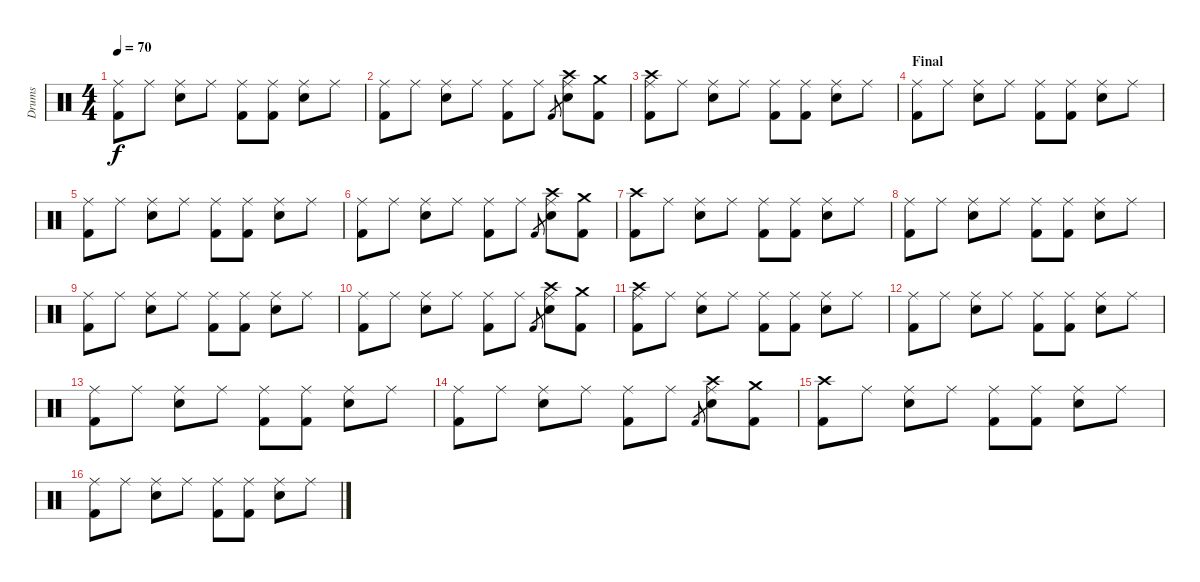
\track ("Drums" "Drums") {instrument percussion}
\staff {score}
\articulation defaults
\ts (4 4)
\tempo 70
\clef neutral
\ks c
("Ride (middle)" "Kick (hit) 2").8{dy f} "Ride (middle)".8 ("Ride (middle)" "Electric Snare (hit)").8 "Ride (middle)".8 ("Ride (middle)" "Kick (hit) 2").8 ("Ride (middle)" "Kick (hit) 2").8 ("Ride (middle)" "Electric Snare (hit)").8 "Ride (middle)".8 |
("Ride (middle)" "Kick (hit) 2").8 "Ride (middle)".8 ("Ride (middle)" "Electric Snare (hit)").8 "Ride (middle)".8 ("Ride (middle)" "Kick (hit) 2").8 "Ride (middle)".8 "Kick (hit) 2".8{gr} ("Crash high (hit)" "Ride (middle)" "Electric Snare (hit)").8 ("Crash medium (hit)" "Kick (hit) 2").8 |
("Crash high (hit)" "Ride (middle)" "Kick (hit) 2").8 "Ride (middle)".8 ("Ride (middle)" "Electric Snare (hit)").8 "Ride (middle)".8 ("Ride (middle)" "Kick (hit) 2").8 ("Ride (middle)" "Kick (hit) 2").8 ("Ride (middle)" "Electric Snare (hit)").8 "Ride (middle)".8 |
\section ("" "Final")
("Ride (middle)" "Kick (hit) 2").8 "Ride (middle)".8 ("Ride (middle)" "Electric Snare (hit)").8 "Ride (middle)".8 ("Ride (middle)" "Kick (hit) 2").8 ("Ride (middle)" "Kick (hit) 2").8 ("Ride (middle)" "Electric Snare (hit)").8 "Ride (middle)".8 |
("Ride (middle)" "Kick (hit) 2").8 "Ride (middle)".8 ("Ride (middle)" "Electric Snare (hit)").8 "Ride (middle)".8 ("Ride (middle)" "Kick (hit) 2").8 ("Ride (middle)" "Kick (hit) 2").8 ("Ride (middle)" "Electric Snare (hit)").8 "Ride (middle)".8 |
("Ride (middle)" "Kick (hit) 2").8 "Ride (middle)".8 ("Ride (middle)" "Electric Snare (hit)").8 "Ride (middle)".8 ("Ride (middle)" "Kick (hit) 2").8 "Ride (middle)".8 "Kick (hit) 2".8{gr} ("Crash high (hit)" "Ride (middle)" "Electric Snare (hit)").8 ("Crash medium (hit)" "Kick (hit) 2").8 |
("Crash high (hit)" "Kick (hit) 2").8 "Ride (middle)".8 ("Ride (middle)" "Electric Snare (hit)").8 "Ride (middle)".8 ("Ride (middle)" "Kick (hit) 2").8 ("Ride (middle)" "Kick (hit) 2").8 ("Ride (middle)" "Electric Snare (hit)").8 "Ride (middle)".8 |
("Ride (middle)" "Kick (hit) 2").8 "Ride (middle)".8 ("Ride (middle)" "Electric Snare (hit)").8 "Ride (middle)".8 ("Ride (middle)" "Kick (hit) 2").8 ("Ride (middle)" "Kick (hit) 2").8 ("Ride (middle)" "Electric Snare (hit)").8 "Ride (middle)".8 |
("Ride (middle)" "Kick (hit) 2").8 "Ride (middle)".8 ("Ride (middle)" "Electric Snare (hit)").8 "Ride (middle)".8 ("Ride (middle)" "Kick (hit) 2").8 ("Ride (middle)" "Kick (hit) 2").8 ("Ride (middle)" "Electric Snare (hit)").8 "Ride (middle)".8 |
("Ride (middle)" "Kick (hit) 2").8 "Ride (middle)".8 ("Ride (middle)" "Electric Snare (hit)").8 "Ride (middle)".8 ("Ride (middle)" "Kick (hit) 2").8 "Ride (middle)".8 "Kick (hit) 2".8{gr} ("Crash high (hit)" "Ride (middle)" "Electric Snare (hit)").8 ("Crash medium (hit)" "Kick (hit) 2").8 |
("Crash high (hit)" "Ride (middle)" "Kick (hit) 2").8 "Ride (middle)".8 ("Ride (middle)" "Electric Snare (hit)").8 "Ride (middle)".8 ("Ride (middle)" "Kick (hit) 2").8 ("Ride (middle)" "Kick (hit) 2").8 ("Ride (middle)" "Electric Snare (hit)").8 "Ride (middle)".8 |
("Ride (middle)" "Kick (hit) 2").8 "Ride (middle)".8 ("Ride (middle)" "Electric Snare (hit)").8 "Ride (middle)".8 ("Ride (middle)" "Kick (hit) 2").8 ("Ride (middle)" "Kick (hit) 2").8 ("Ride (middle)" "Electric Snare (hit)").8 "Ride (middle)".8 |
("Ride (middle)" "Kick (hit) 2").8 "Ride (middle)".8 ("Ride (middle)" "Electric Snare (hit)").8 "Ride (middle)".8 ("Ride (middle)" "Kick (hit) 2").8 ("Ride (middle)" "Kick (hit) 2").8 ("Ride (middle)" "Electric Snare (hit)").8 "Ride (middle)".8 |
("Ride (middle)" "Kick (hit) 2").8 "Ride (middle)".8 ("Ride (middle)" "Electric Snare (hit)").8 "Ride (middle)".8 ("Ride (middle)" "Kick (hit) 2").8 "Ride (middle)".8 "Kick (hit) 2".8{gr} ("Crash high (hit)" "Ride (middle)" "Electric Snare (hit)").8 ("Crash medium (hit)" "Kick (hit) 2").8 |
("Crash high (hit)" "Kick (hit) 2").8 "Ride (middle)".8 ("Ride (middle)" "Electric Snare (hit)").8 "Ride (middle)".8 ("Ride (middle)" "Kick (hit) 2").8 ("Ride (middle)" "Kick (hit) 2").8 ("Ride (middle)" "Electric Snare (hit)").8 "Ride (middle)".8 |
("Ride (middle)" "Kick (hit) 2").8 "Ride (middle)".8 ("Ride (middle)" "Electric Snare (hit)").8 "Ride (middle)".8 ("Ride (middle)" "Kick (hit) 2").8 ("Ride (middle)" "Kick (hit) 2").8 ("Ride (middle)" "Electric Snare (hit)").8 "Ride (middle)".8
